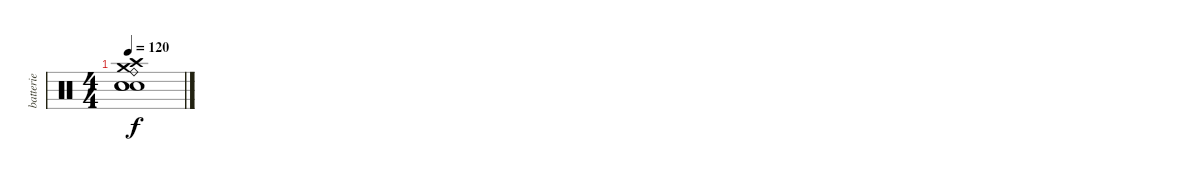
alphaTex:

\track ("batterie" "batterie") {instrument percussion}
\staff {score}
\articulation defaults
\ts (4 4)
\tempo 120
\clef neutral
\ks c
("Electric Snare (hit)" "Ride (bell)" "Electric Snare (hit)" "Electric Snare (hit)" "Crash medium (hit)" "Crash high (hit)").1{dy f}
